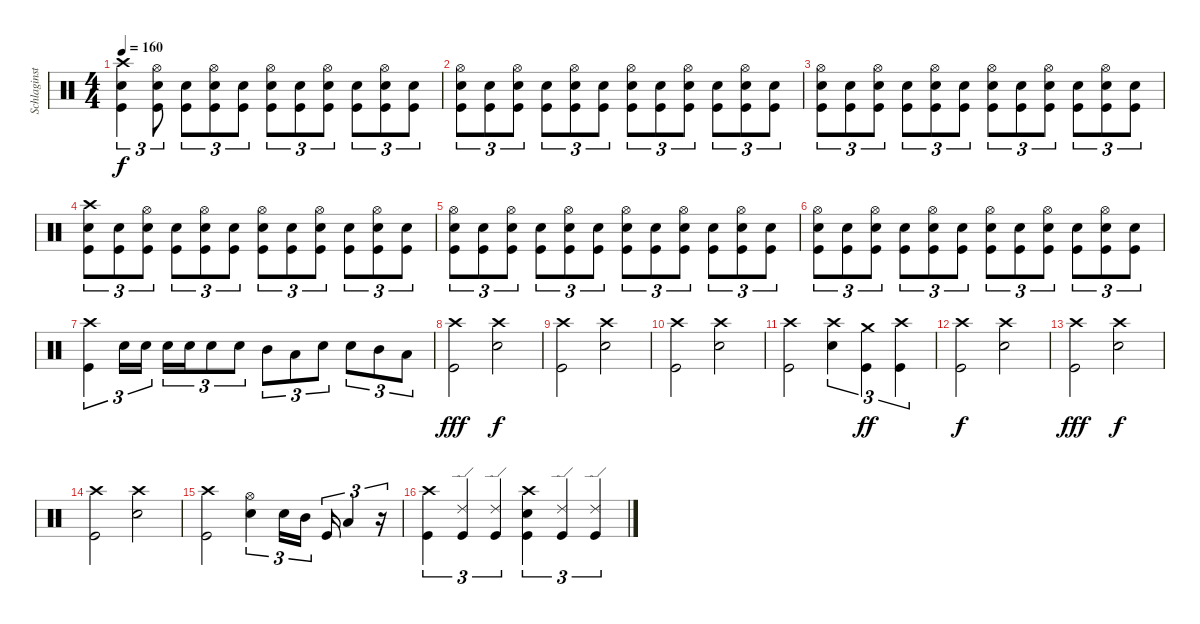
\track ("Schlaginstrumente - Auswahl" "Schlaginst") {instrument percussion}
\staff {score}
\articulation defaults
\ts (4 4)
\tempo 160
\clef neutral
\ks c
("Crash high (hit)" "Electric Snare (hit)" "Kick (hit)").4{tu (3 2) dy f} ("Hi-Hat (open)" "Electric Snare (hit)" "Kick (hit)").8{tu (3 2)} ("Electric Snare (hit)" "Kick (hit)").8{tu (3 2)} ("Hi-Hat (open)" "Electric Snare (hit)" "Kick (hit)").8{tu (3 2)} ("Electric Snare (hit)" "Kick (hit)").8{tu (3 2)} ("Hi-Hat (open)" "Electric Snare (hit)" "Kick (hit)").8{tu (3 2)} ("Electric Snare (hit)" "Kick (hit)").8{tu (3 2)} ("Hi-Hat (open)" "Electric Snare (hit)" "Kick (hit)").8{tu (3 2)} ("Electric Snare (hit)" "Kick (hit)").8{tu (3 2)} ("Hi-Hat (open)" "Electric Snare (hit)" "Kick (hit)").8{tu (3 2)} ("Electric Snare (hit)" "Kick (hit)").8{tu (3 2)} |
("Hi-Hat (open)" "Electric Snare (hit)" "Kick (hit)").8{tu (3 2)} ("Electric Snare (hit)" "Kick (hit)").8{tu (3 2)} ("Hi-Hat (open)" "Electric Snare (hit)" "Kick (hit)").8{tu (3 2)} ("Electric Snare (hit)" "Kick (hit)").8{tu (3 2)} ("Hi-Hat (open)" "Electric Snare (hit)" "Kick (hit)").8{tu (3 2)} ("Electric Snare (hit)" "Kick (hit)").8{tu (3 2)} ("Hi-Hat (open)" "Electric Snare (hit)" "Kick (hit)").8{tu (3 2)} ("Electric Snare (hit)" "Kick (hit)").8{tu (3 2)} ("Hi-Hat (open)" "Electric Snare (hit)" "Kick (hit)").8{tu (3 2)} ("Electric Snare (hit)" "Kick (hit)").8{tu (3 2)} ("Hi-Hat (open)" "Electric Snare (hit)" "Kick (hit)").8{tu (3 2)} ("Electric Snare (hit)" "Kick (hit)").8{tu (3 2)} |
("Hi-Hat (open)" "Electric Snare (hit)" "Kick (hit)").8{tu (3 2)} ("Electric Snare (hit)" "Kick (hit)").8{tu (3 2)} ("Hi-Hat (open)" "Electric Snare (hit)" "Kick (hit)").8{tu (3 2)} ("Electric Snare (hit)" "Kick (hit)").8{tu (3 2)} ("Hi-Hat (open)" "Electric Snare (hit)" "Kick (hit)").8{tu (3 2)} ("Electric Snare (hit)" "Kick (hit)").8{tu (3 2)} ("Hi-Hat (open)" "Electric Snare (hit)" "Kick (hit)").8{tu (3 2)} ("Electric Snare (hit)" "Kick (hit)").8{tu (3 2)} ("Hi-Hat (open)" "Electric Snare (hit)" "Kick (hit)").8{tu (3 2)} ("Electric Snare (hit)" "Kick (hit)").8{tu (3 2)} ("Hi-Hat (open)" "Electric Snare (hit)" "Kick (hit)").8{tu (3 2)} ("Electric Snare (hit)" "Kick (hit)").8{tu (3 2)} |
("Crash high (hit)" "Electric Snare (hit)" "Kick (hit)").8{tu (3 2)} ("Electric Snare (hit)" "Kick (hit)").8{tu (3 2)} ("Hi-Hat (open)" "Electric Snare (hit)" "Kick (hit)").8{tu (3 2)} ("Electric Snare (hit)" "Kick (hit)").8{tu (3 2)} ("Hi-Hat (open)" "Electric Snare (hit)" "Kick (hit)").8{tu (3 2)} ("Electric Snare (hit)" "Kick (hit)").8{tu (3 2)} ("Hi-Hat (open)" "Electric Snare (hit)" "Kick (hit)").8{tu (3 2)} ("Electric Snare (hit)" "Kick (hit)").8{tu (3 2)} ("Hi-Hat (open)" "Electric Snare (hit)" "Kick (hit)").8{tu (3 2)} ("Electric Snare (hit)" "Kick (hit)").8{tu (3 2)} ("Hi-Hat (open)" "Electric Snare (hit)" "Kick (hit)").8{tu (3 2)} ("Electric Snare (hit)" "Kick (hit)").8{tu (3 2)} |
("Hi-Hat (open)" "Electric Snare (hit)" "Kick (hit)").8{tu (3 2)} ("Electric Snare (hit)" "Kick (hit)").8{tu (3 2)} ("Hi-Hat (open)" "Electric Snare (hit)" "Kick (hit)").8{tu (3 2)} ("Electric Snare (hit)" "Kick (hit)").8{tu (3 2)} ("Hi-Hat (open)" "Electric Snare (hit)" "Kick (hit)").8{tu (3 2)} ("Electric Snare (hit)" "Kick (hit)").8{tu (3 2)} ("Hi-Hat (open)" "Electric Snare (hit)" "Kick (hit)").8{tu (3 2)} ("Electric Snare (hit)" "Kick (hit)").8{tu (3 2)} ("Hi-Hat (open)" "Electric Snare (hit)" "Kick (hit)").8{tu (3 2)} ("Electric Snare (hit)" "Kick (hit)").8{tu (3 2)} ("Hi-Hat (open)" "Electric Snare (hit)" "Kick (hit)").8{tu (3 2)} ("Electric Snare (hit)" "Kick (hit)").8{tu (3 2)} |
("Hi-Hat (open)" "Electric Snare (hit)" "Kick (hit)").8{tu (3 2)} ("Electric Snare (hit)" "Kick (hit)").8{tu (3 2)} ("Hi-Hat (open)" "Electric Snare (hit)" "Kick (hit)").8{tu (3 2)} ("Electric Snare (hit)" "Kick (hit)").8{tu (3 2)} ("Hi-Hat (open)" "Electric Snare (hit)" "Kick (hit)").8{tu (3 2)} ("Electric Snare (hit)" "Kick (hit)").8{tu (3 2)} ("Hi-Hat (open)" "Electric Snare (hit)" "Kick (hit)").8{tu (3 2)} ("Electric Snare (hit)" "Kick (hit)").8{tu (3 2)} ("Hi-Hat (open)" "Electric Snare (hit)" "Kick (hit)").8{tu (3 2)} ("Electric Snare (hit)" "Kick (hit)").8{tu (3 2)} ("Hi-Hat (open)" "Electric Snare (hit)" "Kick (hit)").8{tu (3 2)} ("Electric Snare (hit)" "Kick (hit)").8{tu (3 2)} |
("Crash high (hit)" "Kick (hit)").4{tu (3 2)} "Electric Snare (hit)".16{tu (3 2)} "Electric Snare (hit)".16{tu (3 2)} "Electric Snare (hit)".16{tu (3 2)} "Electric Snare (hit)".16{tu (3 2)} "Electric Snare (hit)".8{tu (3 2)} "Electric Snare (hit)".8{tu (3 2)} "Mid Tom (hit)".8{tu (3 2)} "Low Tom (hit)".8{tu (3 2)} "Electric Snare (hit)".8{tu (3 2)} "Electric Snare (hit)".8{tu (3 2)} "Mid Tom (hit)".8{tu (3 2)} "Low Tom (hit)".8{tu (3 2)} |
("Crash high (hit)" "Kick (hit)").2{dy fff} ("Crash high (hit)" "Electric Snare (hit)").2{dy f} |
("Crash high (hit)" "Kick (hit)").2 ("Crash high (hit)" "Electric Snare (hit)").2 |
("Crash high (hit)" "Kick (hit)").2 ("Crash high (hit)" "Electric Snare (hit)").2 |
("Crash high (hit)" "Kick (hit)").2 ("Crash high (hit)" "Electric Snare (hit)").4{tu (3 2)} ("Crash medium (hit)" "Kick (hit)").4{tu (3 2) dy ff} ("Crash high (hit)" "Kick (hit)").4{tu (3 2)} |
("Crash high (hit)" "Kick (hit)").2{dy f} ("Crash high (hit)" "Electric Snare (hit)").2 |
("Crash high (hit)" "Kick (hit)").2{dy fff} ("Crash high (hit)" "Electric Snare (hit)").2{dy f} |
("Crash high (hit)" "Kick (hit)").2 ("Crash high (hit)" "Electric Snare (hit)").2 |
("Crash high (hit)" "Kick (hit)").2 ("Hi-Hat (open)" "Electric Snare (hit)").4{tu (3 2)} "Electric Snare (hit)".16{tu (3 2)} "Mid Tom (hit)".16{tu (3 2)} "Kick (hit)".16{tu (3 2)} "Low Tom (hit)".4{tu (3 2)} r.16{tu (3 2)} |
("Crash high (hit)" "Kick (hit)").4{tu (3 2)} ("Ride (edge) 2" "Kick (hit)").4{tu (3 2)} ("Ride (edge) 2" "Kick (hit)").4{tu (3 2)} ("Electric Snare (hit)" "Crash high (hit)" "Kick (hit)").4{tu (3 2)} ("Ride (edge) 2" "Kick (hit)").4{tu (3 2)} ("Ride (edge) 2" "Kick (hit)").4{tu (3 2)}
